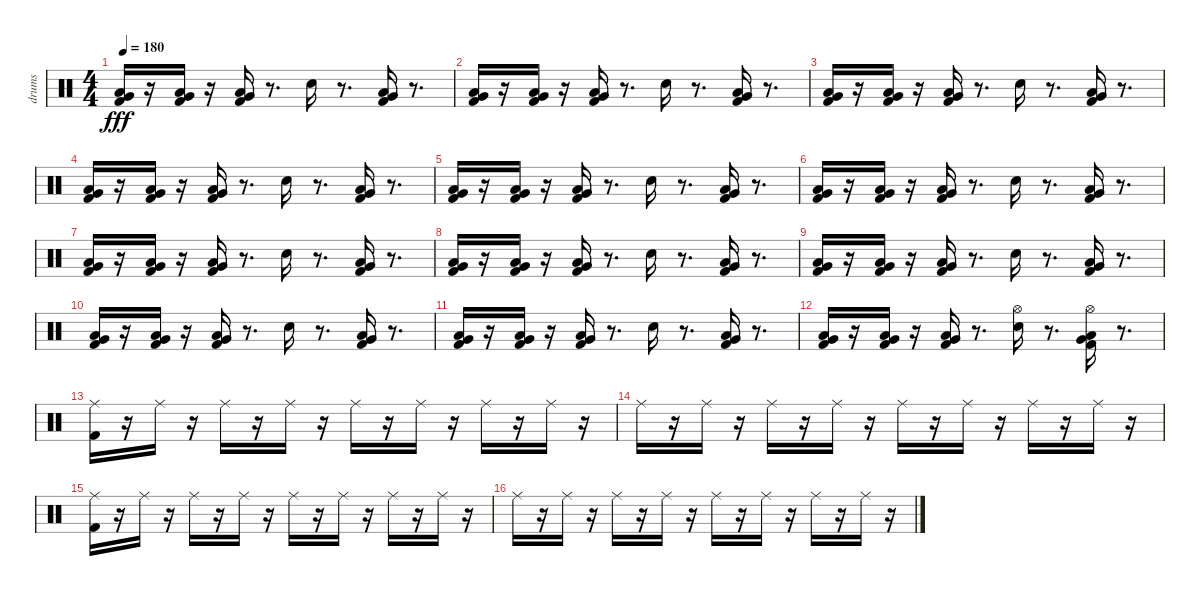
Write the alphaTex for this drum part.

\track ("drums" "drums") {instrument percussion}
\staff {score}
\articulation defaults
\ts (4 4)
\tempo 180
\clef neutral
\ks c
("Very Low Tom (hit)" "Low Floor Tom (hit)" "Kick (hit) 2").16{dy fff} r.16 ("Low Tom (hit)" "Very Low Tom (hit)" "Kick (hit) 2").16 r.16 ("Low Floor Tom (hit)" "Very Low Tom (hit)" "Kick (hit) 2").16 r.8{d} "Electric Snare (hit)".16 r.8{d} ("Kick (hit) 2" "Very Low Tom (hit)" "Low Floor Tom (hit)").16 r.8{d} |
("Kick (hit) 2" "Low Floor Tom (hit)" "Very Low Tom (hit)").16 r.16 ("Kick (hit) 2" "Very Low Tom (hit)" "Low Tom (hit)").16 r.16 ("Kick (hit) 2" "Low Floor Tom (hit)" "Very Low Tom (hit)").16 r.8{d} "Electric Snare (hit)".16 r.8{d} ("Kick (hit) 2" "Very Low Tom (hit)" "Low Floor Tom (hit)").16 r.8{d} |
("Very Low Tom (hit)" "Low Floor Tom (hit)" "Kick (hit) 2").16 r.16 ("Low Tom (hit)" "Very Low Tom (hit)" "Kick (hit) 2").16 r.16 ("Low Floor Tom (hit)" "Very Low Tom (hit)" "Kick (hit) 2").16 r.8{d} "Electric Snare (hit)".16 r.8{d} ("Kick (hit) 2" "Very Low Tom (hit)" "Low Floor Tom (hit)").16 r.8{d} |
("Kick (hit) 2" "Low Floor Tom (hit)" "Very Low Tom (hit)").16 r.16 ("Kick (hit) 2" "Very Low Tom (hit)" "Low Tom (hit)").16 r.16 ("Kick (hit) 2" "Low Floor Tom (hit)" "Very Low Tom (hit)").16 r.8{d} "Electric Snare (hit)".16 r.8{d} ("Kick (hit) 2" "Very Low Tom (hit)" "Low Floor Tom (hit)").16 r.8{d} |
("Very Low Tom (hit)" "Low Floor Tom (hit)" "Kick (hit) 2").16 r.16 ("Low Tom (hit)" "Very Low Tom (hit)" "Kick (hit) 2").16 r.16 ("Low Floor Tom (hit)" "Very Low Tom (hit)" "Kick (hit) 2").16 r.8{d} "Electric Snare (hit)".16 r.8{d} ("Kick (hit) 2" "Very Low Tom (hit)" "Low Floor Tom (hit)").16 r.8{d} |
("Kick (hit) 2" "Low Floor Tom (hit)" "Very Low Tom (hit)").16 r.16 ("Kick (hit) 2" "Very Low Tom (hit)" "Low Tom (hit)").16 r.16 ("Kick (hit) 2" "Low Floor Tom (hit)" "Very Low Tom (hit)").16 r.8{d} "Electric Snare (hit)".16 r.8{d} ("Kick (hit) 2" "Very Low Tom (hit)" "Low Floor Tom (hit)").16 r.8{d} |
("Very Low Tom (hit)" "Low Floor Tom (hit)" "Kick (hit) 2").16 r.16 ("Low Tom (hit)" "Very Low Tom (hit)" "Kick (hit) 2").16 r.16 ("Low Floor Tom (hit)" "Very Low Tom (hit)" "Kick (hit) 2").16 r.8{d} "Electric Snare (hit)".16 r.8{d} ("Kick (hit) 2" "Very Low Tom (hit)" "Low Floor Tom (hit)").16 r.8{d} |
("Kick (hit) 2" "Low Floor Tom (hit)" "Very Low Tom (hit)").16 r.16 ("Kick (hit) 2" "Very Low Tom (hit)" "Low Tom (hit)").16 r.16 ("Kick (hit) 2" "Low Floor Tom (hit)" "Very Low Tom (hit)").16 r.8{d} "Electric Snare (hit)".16 r.8{d} ("Kick (hit) 2" "Very Low Tom (hit)" "Low Floor Tom (hit)").16 r.8{d} |
("Very Low Tom (hit)" "Low Floor Tom (hit)" "Kick (hit) 2").16 r.16 ("Low Tom (hit)" "Very Low Tom (hit)" "Kick (hit) 2").16 r.16 ("Low Floor Tom (hit)" "Very Low Tom (hit)" "Kick (hit) 2").16 r.8{d} "Electric Snare (hit)".16 r.8{d} ("Kick (hit) 2" "Very Low Tom (hit)" "Low Floor Tom (hit)").16 r.8{d} |
("Kick (hit) 2" "Low Floor Tom (hit)" "Very Low Tom (hit)").16 r.16 ("Kick (hit) 2" "Very Low Tom (hit)" "Low Tom (hit)").16 r.16 ("Kick (hit) 2" "Low Floor Tom (hit)" "Very Low Tom (hit)").16 r.8{d} "Electric Snare (hit)".16 r.8{d} ("Kick (hit) 2" "Very Low Tom (hit)" "Low Floor Tom (hit)").16 r.8{d} |
("Very Low Tom (hit)" "Low Floor Tom (hit)" "Kick (hit) 2").16 r.16 ("Low Tom (hit)" "Very Low Tom (hit)" "Kick (hit) 2").16 r.16 ("Low Floor Tom (hit)" "Very Low Tom (hit)" "Kick (hit) 2").16 r.8{d} "Electric Snare (hit)".16 r.8{d} ("Kick (hit) 2" "Very Low Tom (hit)" "Low Floor Tom (hit)").16 r.8{d} |
("Kick (hit) 2" "Low Floor Tom (hit)" "Very Low Tom (hit)").16 r.16 ("Kick (hit) 2" "Very Low Tom (hit)" "Low Tom (hit)").16 r.16 ("Kick (hit) 2" "Low Floor Tom (hit)" "Very Low Tom (hit)").16 r.8{d} ("Electric Snare (hit)" "Hi-Hat (open)").16 r.8{d} ("Kick (hit) 2" "Hi-Hat (open)" "Very Low Tom (hit)" "Low Floor Tom (hit)").16 r.8{d} |
("Ride (middle)" "Kick (hit) 2").16 r.16 "Ride (middle)".16 r.16 "Ride (middle)".16 r.16 "Ride (middle)".16 r.16 "Ride (middle)".16 r.16 "Ride (middle)".16 r.16 "Ride (middle)".16 r.16 "Ride (middle)".16 r.16 |
"Ride (middle)".16 r.16 "Ride (middle)".16 r.16 "Ride (middle)".16 r.16 "Ride (middle)".16 r.16 "Ride (middle)".16 r.16 "Ride (middle)".16 r.16 "Ride (middle)".16 r.16 "Ride (middle)".16 r.16 |
("Kick (hit) 2" "Ride (middle)").16 r.16 "Ride (middle)".16 r.16 "Ride (middle)".16 r.16 "Ride (middle)".16 r.16 "Ride (middle)".16 r.16 "Ride (middle)".16 r.16 "Ride (middle)".16 r.16 "Ride (middle)".16 r.16 |
"Ride (middle)".16 r.16 "Ride (middle)".16 r.16 "Ride (middle)".16 r.16 "Ride (middle)".16 r.16 "Ride (middle)".16 r.16 "Ride (middle)".16 r.16 "Ride (middle)".16 r.16 "Ride (middle)".16 r.16
